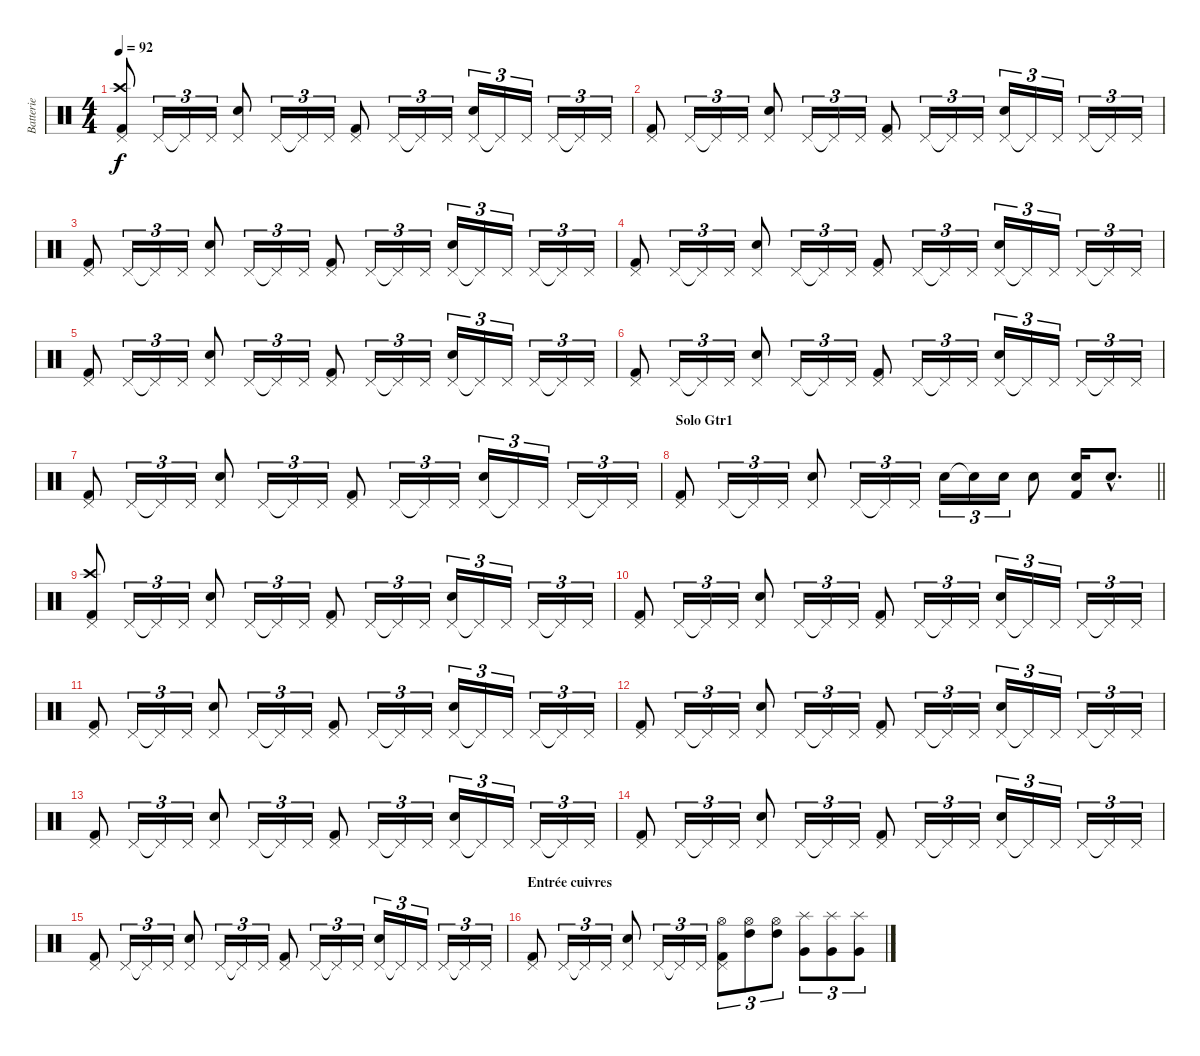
\track ("Batterie" "Batterie") {instrument percussion}
\staff {score}
\articulation defaults
\ts (4 4)
\tempo 92
\clef neutral
\ks c
("Pedal Hi-Hat (hit)" "Crash high (hit)" "Kick (hit) 2").8{dy f} "Pedal Hi-Hat (hit)".16{tu (3 2)} "Pedal Hi-Hat (hit)"{t}.16{tu (3 2)} "Pedal Hi-Hat (hit)".16{tu (3 2)} ("Pedal Hi-Hat (hit)" "Electric Snare (hit)").8 "Pedal Hi-Hat (hit)".16{tu (3 2)} "Pedal Hi-Hat (hit)"{t}.16{tu (3 2)} "Pedal Hi-Hat (hit)".16{tu (3 2)} ("Pedal Hi-Hat (hit)" "Kick (hit) 2").8 "Pedal Hi-Hat (hit)".16{tu (3 2)} "Pedal Hi-Hat (hit)"{t}.16{tu (3 2)} "Pedal Hi-Hat (hit)".16{tu (3 2)} ("Pedal Hi-Hat (hit)" "Electric Snare (hit)").16{tu (3 2)} "Pedal Hi-Hat (hit)"{t}.16{tu (3 2)} "Pedal Hi-Hat (hit)".16{tu (3 2)} "Pedal Hi-Hat (hit)".16{tu (3 2)} "Pedal Hi-Hat (hit)"{t}.16{tu (3 2)} "Pedal Hi-Hat (hit)".16{tu (3 2)} |
("Pedal Hi-Hat (hit)" "Kick (hit) 2").8 "Pedal Hi-Hat (hit)".16{tu (3 2)} "Pedal Hi-Hat (hit)"{t}.16{tu (3 2)} "Pedal Hi-Hat (hit)".16{tu (3 2)} ("Pedal Hi-Hat (hit)" "Electric Snare (hit)").8 "Pedal Hi-Hat (hit)".16{tu (3 2)} "Pedal Hi-Hat (hit)"{t}.16{tu (3 2)} "Pedal Hi-Hat (hit)".16{tu (3 2)} ("Pedal Hi-Hat (hit)" "Kick (hit) 2").8 "Pedal Hi-Hat (hit)".16{tu (3 2)} "Pedal Hi-Hat (hit)"{t}.16{tu (3 2)} "Pedal Hi-Hat (hit)".16{tu (3 2)} ("Pedal Hi-Hat (hit)" "Electric Snare (hit)").16{tu (3 2)} "Pedal Hi-Hat (hit)"{t}.16{tu (3 2)} "Pedal Hi-Hat (hit)".16{tu (3 2)} "Pedal Hi-Hat (hit)".16{tu (3 2)} "Pedal Hi-Hat (hit)"{t}.16{tu (3 2)} "Pedal Hi-Hat (hit)".16{tu (3 2)} |
("Pedal Hi-Hat (hit)" "Kick (hit) 2").8 "Pedal Hi-Hat (hit)".16{tu (3 2)} "Pedal Hi-Hat (hit)"{t}.16{tu (3 2)} "Pedal Hi-Hat (hit)".16{tu (3 2)} ("Pedal Hi-Hat (hit)" "Electric Snare (hit)").8 "Pedal Hi-Hat (hit)".16{tu (3 2)} "Pedal Hi-Hat (hit)"{t}.16{tu (3 2)} "Pedal Hi-Hat (hit)".16{tu (3 2)} ("Pedal Hi-Hat (hit)" "Kick (hit) 2").8 "Pedal Hi-Hat (hit)".16{tu (3 2)} "Pedal Hi-Hat (hit)"{t}.16{tu (3 2)} "Pedal Hi-Hat (hit)".16{tu (3 2)} ("Pedal Hi-Hat (hit)" "Electric Snare (hit)").16{tu (3 2)} "Pedal Hi-Hat (hit)"{t}.16{tu (3 2)} "Pedal Hi-Hat (hit)".16{tu (3 2)} "Pedal Hi-Hat (hit)".16{tu (3 2)} "Pedal Hi-Hat (hit)"{t}.16{tu (3 2)} "Pedal Hi-Hat (hit)".16{tu (3 2)} |
("Pedal Hi-Hat (hit)" "Kick (hit) 2").8 "Pedal Hi-Hat (hit)".16{tu (3 2)} "Pedal Hi-Hat (hit)"{t}.16{tu (3 2)} "Pedal Hi-Hat (hit)".16{tu (3 2)} ("Pedal Hi-Hat (hit)" "Electric Snare (hit)").8 "Pedal Hi-Hat (hit)".16{tu (3 2)} "Pedal Hi-Hat (hit)"{t}.16{tu (3 2)} "Pedal Hi-Hat (hit)".16{tu (3 2)} ("Pedal Hi-Hat (hit)" "Kick (hit) 2").8 "Pedal Hi-Hat (hit)".16{tu (3 2)} "Pedal Hi-Hat (hit)"{t}.16{tu (3 2)} "Pedal Hi-Hat (hit)".16{tu (3 2)} ("Pedal Hi-Hat (hit)" "Electric Snare (hit)").16{tu (3 2)} "Pedal Hi-Hat (hit)"{t}.16{tu (3 2)} "Pedal Hi-Hat (hit)".16{tu (3 2)} "Pedal Hi-Hat (hit)".16{tu (3 2)} "Pedal Hi-Hat (hit)"{t}.16{tu (3 2)} "Pedal Hi-Hat (hit)".16{tu (3 2)} |
("Pedal Hi-Hat (hit)" "Kick (hit) 2").8 "Pedal Hi-Hat (hit)".16{tu (3 2)} "Pedal Hi-Hat (hit)"{t}.16{tu (3 2)} "Pedal Hi-Hat (hit)".16{tu (3 2)} ("Pedal Hi-Hat (hit)" "Electric Snare (hit)").8 "Pedal Hi-Hat (hit)".16{tu (3 2)} "Pedal Hi-Hat (hit)"{t}.16{tu (3 2)} "Pedal Hi-Hat (hit)".16{tu (3 2)} ("Pedal Hi-Hat (hit)" "Kick (hit) 2").8 "Pedal Hi-Hat (hit)".16{tu (3 2)} "Pedal Hi-Hat (hit)"{t}.16{tu (3 2)} "Pedal Hi-Hat (hit)".16{tu (3 2)} ("Pedal Hi-Hat (hit)" "Electric Snare (hit)").16{tu (3 2)} "Pedal Hi-Hat (hit)"{t}.16{tu (3 2)} "Pedal Hi-Hat (hit)".16{tu (3 2)} "Pedal Hi-Hat (hit)".16{tu (3 2)} "Pedal Hi-Hat (hit)"{t}.16{tu (3 2)} "Pedal Hi-Hat (hit)".16{tu (3 2)} |
("Pedal Hi-Hat (hit)" "Kick (hit) 2").8 "Pedal Hi-Hat (hit)".16{tu (3 2)} "Pedal Hi-Hat (hit)"{t}.16{tu (3 2)} "Pedal Hi-Hat (hit)".16{tu (3 2)} ("Pedal Hi-Hat (hit)" "Electric Snare (hit)").8 "Pedal Hi-Hat (hit)".16{tu (3 2)} "Pedal Hi-Hat (hit)"{t}.16{tu (3 2)} "Pedal Hi-Hat (hit)".16{tu (3 2)} ("Pedal Hi-Hat (hit)" "Kick (hit) 2").8 "Pedal Hi-Hat (hit)".16{tu (3 2)} "Pedal Hi-Hat (hit)"{t}.16{tu (3 2)} "Pedal Hi-Hat (hit)".16{tu (3 2)} ("Pedal Hi-Hat (hit)" "Electric Snare (hit)").16{tu (3 2)} "Pedal Hi-Hat (hit)"{t}.16{tu (3 2)} "Pedal Hi-Hat (hit)".16{tu (3 2)} "Pedal Hi-Hat (hit)".16{tu (3 2)} "Pedal Hi-Hat (hit)"{t}.16{tu (3 2)} "Pedal Hi-Hat (hit)".16{tu (3 2)} |
("Pedal Hi-Hat (hit)" "Kick (hit) 2").8 "Pedal Hi-Hat (hit)".16{tu (3 2)} "Pedal Hi-Hat (hit)"{t}.16{tu (3 2)} "Pedal Hi-Hat (hit)".16{tu (3 2)} ("Pedal Hi-Hat (hit)" "Electric Snare (hit)").8 "Pedal Hi-Hat (hit)".16{tu (3 2)} "Pedal Hi-Hat (hit)"{t}.16{tu (3 2)} "Pedal Hi-Hat (hit)".16{tu (3 2)} ("Pedal Hi-Hat (hit)" "Kick (hit) 2").8 "Pedal Hi-Hat (hit)".16{tu (3 2)} "Pedal Hi-Hat (hit)"{t}.16{tu (3 2)} "Pedal Hi-Hat (hit)".16{tu (3 2)} ("Pedal Hi-Hat (hit)" "Electric Snare (hit)").16{tu (3 2)} "Pedal Hi-Hat (hit)"{t}.16{tu (3 2)} "Pedal Hi-Hat (hit)".16{tu (3 2)} "Pedal Hi-Hat (hit)".16{tu (3 2)} "Pedal Hi-Hat (hit)"{t}.16{tu (3 2)} "Pedal Hi-Hat (hit)".16{tu (3 2)} |
\section ("" "Solo Gtr1")
\barLineRight lightlight
("Pedal Hi-Hat (hit)" "Kick (hit) 2").8 "Pedal Hi-Hat (hit)".16{tu (3 2)} "Pedal Hi-Hat (hit)"{t}.16{tu (3 2)} "Pedal Hi-Hat (hit)".16{tu (3 2)} ("Pedal Hi-Hat (hit)" "Electric Snare (hit)").8 "Pedal Hi-Hat (hit)".16{tu (3 2)} "Pedal Hi-Hat (hit)"{t}.16{tu (3 2)} "Pedal Hi-Hat (hit)".16{tu (3 2)} "Electric Snare (hit)".16{tu (3 2)} "Electric Snare (hit)"{t}.16{tu (3 2)} "Electric Snare (hit)".16{tu (3 2)} "Electric Snare (hit)".8 ("Electric Snare (hit)" "Kick (hit) 2").16 "Electric Snare (hit)"{hac}.8{d} |
("Pedal Hi-Hat (hit)" "Crash high (hit)" "Kick (hit) 2").8 "Pedal Hi-Hat (hit)".16{tu (3 2)} "Pedal Hi-Hat (hit)"{t}.16{tu (3 2)} "Pedal Hi-Hat (hit)".16{tu (3 2)} ("Pedal Hi-Hat (hit)" "Electric Snare (hit)").8 "Pedal Hi-Hat (hit)".16{tu (3 2)} "Pedal Hi-Hat (hit)"{t}.16{tu (3 2)} "Pedal Hi-Hat (hit)".16{tu (3 2)} ("Pedal Hi-Hat (hit)" "Kick (hit) 2").8 "Pedal Hi-Hat (hit)".16{tu (3 2)} "Pedal Hi-Hat (hit)"{t}.16{tu (3 2)} "Pedal Hi-Hat (hit)".16{tu (3 2)} ("Pedal Hi-Hat (hit)" "Electric Snare (hit)").16{tu (3 2)} "Pedal Hi-Hat (hit)"{t}.16{tu (3 2)} "Pedal Hi-Hat (hit)".16{tu (3 2)} "Pedal Hi-Hat (hit)".16{tu (3 2)} "Pedal Hi-Hat (hit)"{t}.16{tu (3 2)} "Pedal Hi-Hat (hit)".16{tu (3 2)} |
("Pedal Hi-Hat (hit)" "Kick (hit) 2").8 "Pedal Hi-Hat (hit)".16{tu (3 2)} "Pedal Hi-Hat (hit)"{t}.16{tu (3 2)} "Pedal Hi-Hat (hit)".16{tu (3 2)} ("Pedal Hi-Hat (hit)" "Electric Snare (hit)").8 "Pedal Hi-Hat (hit)".16{tu (3 2)} "Pedal Hi-Hat (hit)"{t}.16{tu (3 2)} "Pedal Hi-Hat (hit)".16{tu (3 2)} ("Pedal Hi-Hat (hit)" "Kick (hit) 2").8 "Pedal Hi-Hat (hit)".16{tu (3 2)} "Pedal Hi-Hat (hit)"{t}.16{tu (3 2)} "Pedal Hi-Hat (hit)".16{tu (3 2)} ("Pedal Hi-Hat (hit)" "Electric Snare (hit)").16{tu (3 2)} "Pedal Hi-Hat (hit)"{t}.16{tu (3 2)} "Pedal Hi-Hat (hit)".16{tu (3 2)} "Pedal Hi-Hat (hit)".16{tu (3 2)} "Pedal Hi-Hat (hit)"{t}.16{tu (3 2)} "Pedal Hi-Hat (hit)".16{tu (3 2)} |
("Pedal Hi-Hat (hit)" "Kick (hit) 2").8 "Pedal Hi-Hat (hit)".16{tu (3 2)} "Pedal Hi-Hat (hit)"{t}.16{tu (3 2)} "Pedal Hi-Hat (hit)".16{tu (3 2)} ("Pedal Hi-Hat (hit)" "Electric Snare (hit)").8 "Pedal Hi-Hat (hit)".16{tu (3 2)} "Pedal Hi-Hat (hit)"{t}.16{tu (3 2)} "Pedal Hi-Hat (hit)".16{tu (3 2)} ("Pedal Hi-Hat (hit)" "Kick (hit) 2").8 "Pedal Hi-Hat (hit)".16{tu (3 2)} "Pedal Hi-Hat (hit)"{t}.16{tu (3 2)} "Pedal Hi-Hat (hit)".16{tu (3 2)} ("Pedal Hi-Hat (hit)" "Electric Snare (hit)").16{tu (3 2)} "Pedal Hi-Hat (hit)"{t}.16{tu (3 2)} "Pedal Hi-Hat (hit)".16{tu (3 2)} "Pedal Hi-Hat (hit)".16{tu (3 2)} "Pedal Hi-Hat (hit)"{t}.16{tu (3 2)} "Pedal Hi-Hat (hit)".16{tu (3 2)} |
("Pedal Hi-Hat (hit)" "Kick (hit) 2").8 "Pedal Hi-Hat (hit)".16{tu (3 2)} "Pedal Hi-Hat (hit)"{t}.16{tu (3 2)} "Pedal Hi-Hat (hit)".16{tu (3 2)} ("Pedal Hi-Hat (hit)" "Electric Snare (hit)").8 "Pedal Hi-Hat (hit)".16{tu (3 2)} "Pedal Hi-Hat (hit)"{t}.16{tu (3 2)} "Pedal Hi-Hat (hit)".16{tu (3 2)} ("Pedal Hi-Hat (hit)" "Kick (hit) 2").8 "Pedal Hi-Hat (hit)".16{tu (3 2)} "Pedal Hi-Hat (hit)"{t}.16{tu (3 2)} "Pedal Hi-Hat (hit)".16{tu (3 2)} ("Pedal Hi-Hat (hit)" "Electric Snare (hit)").16{tu (3 2)} "Pedal Hi-Hat (hit)"{t}.16{tu (3 2)} "Pedal Hi-Hat (hit)".16{tu (3 2)} "Pedal Hi-Hat (hit)".16{tu (3 2)} "Pedal Hi-Hat (hit)"{t}.16{tu (3 2)} "Pedal Hi-Hat (hit)".16{tu (3 2)} |
("Pedal Hi-Hat (hit)" "Kick (hit) 2").8 "Pedal Hi-Hat (hit)".16{tu (3 2)} "Pedal Hi-Hat (hit)"{t}.16{tu (3 2)} "Pedal Hi-Hat (hit)".16{tu (3 2)} ("Pedal Hi-Hat (hit)" "Electric Snare (hit)").8 "Pedal Hi-Hat (hit)".16{tu (3 2)} "Pedal Hi-Hat (hit)"{t}.16{tu (3 2)} "Pedal Hi-Hat (hit)".16{tu (3 2)} ("Pedal Hi-Hat (hit)" "Kick (hit) 2").8 "Pedal Hi-Hat (hit)".16{tu (3 2)} "Pedal Hi-Hat (hit)"{t}.16{tu (3 2)} "Pedal Hi-Hat (hit)".16{tu (3 2)} ("Pedal Hi-Hat (hit)" "Electric Snare (hit)").16{tu (3 2)} "Pedal Hi-Hat (hit)"{t}.16{tu (3 2)} "Pedal Hi-Hat (hit)".16{tu (3 2)} "Pedal Hi-Hat (hit)".16{tu (3 2)} "Pedal Hi-Hat (hit)"{t}.16{tu (3 2)} "Pedal Hi-Hat (hit)".16{tu (3 2)} |
("Pedal Hi-Hat (hit)" "Kick (hit) 2").8 "Pedal Hi-Hat (hit)".16{tu (3 2)} "Pedal Hi-Hat (hit)"{t}.16{tu (3 2)} "Pedal Hi-Hat (hit)".16{tu (3 2)} ("Pedal Hi-Hat (hit)" "Electric Snare (hit)").8 "Pedal Hi-Hat (hit)".16{tu (3 2)} "Pedal Hi-Hat (hit)"{t}.16{tu (3 2)} "Pedal Hi-Hat (hit)".16{tu (3 2)} ("Pedal Hi-Hat (hit)" "Kick (hit) 2").8 "Pedal Hi-Hat (hit)".16{tu (3 2)} "Pedal Hi-Hat (hit)"{t}.16{tu (3 2)} "Pedal Hi-Hat (hit)".16{tu (3 2)} ("Pedal Hi-Hat (hit)" "Electric Snare (hit)").16{tu (3 2)} "Pedal Hi-Hat (hit)"{t}.16{tu (3 2)} "Pedal Hi-Hat (hit)".16{tu (3 2)} "Pedal Hi-Hat (hit)".16{tu (3 2)} "Pedal Hi-Hat (hit)"{t}.16{tu (3 2)} "Pedal Hi-Hat (hit)".16{tu (3 2)} |
("Pedal Hi-Hat (hit)" "Kick (hit) 2").8 "Pedal Hi-Hat (hit)".16{tu (3 2)} "Pedal Hi-Hat (hit)"{t}.16{tu (3 2)} "Pedal Hi-Hat (hit)".16{tu (3 2)} ("Pedal Hi-Hat (hit)" "Electric Snare (hit)").8 "Pedal Hi-Hat (hit)".16{tu (3 2)} "Pedal Hi-Hat (hit)"{t}.16{tu (3 2)} "Pedal Hi-Hat (hit)".16{tu (3 2)} ("Pedal Hi-Hat (hit)" "Kick (hit) 2").8 "Pedal Hi-Hat (hit)".16{tu (3 2)} "Pedal Hi-Hat (hit)"{t}.16{tu (3 2)} "Pedal Hi-Hat (hit)".16{tu (3 2)} ("Pedal Hi-Hat (hit)" "Electric Snare (hit)").16{tu (3 2)} "Pedal Hi-Hat (hit)"{t}.16{tu (3 2)} "Pedal Hi-Hat (hit)".16{tu (3 2)} "Pedal Hi-Hat (hit)".16{tu (3 2)} "Pedal Hi-Hat (hit)"{t}.16{tu (3 2)} "Pedal Hi-Hat (hit)".16{tu (3 2)} |
\section ("" "Entrée cuivres")
("Pedal Hi-Hat (hit)" "Kick (hit) 2").8 "Pedal Hi-Hat (hit)".16{tu (3 2)} "Pedal Hi-Hat (hit)"{t}.16{tu (3 2)} "Pedal Hi-Hat (hit)".16{tu (3 2)} ("Pedal Hi-Hat (hit)" "Electric Snare (hit)").8 "Pedal Hi-Hat (hit)".16{tu (3 2)} "Pedal Hi-Hat (hit)"{t}.16{tu (3 2)} "Pedal Hi-Hat (hit)".16{tu (3 2)} ("Pedal Hi-Hat (hit)" "Hi-Hat (open)" "Kick (hit) 2").8{tu (3 2)} ("Hi-Hat (open)" "High Tom (hit)").8{tu (3 2)} ("Hi-Hat (open)" "High Tom (hit)").8{tu (3 2)} ("Splash (hit)" "Very Low Tom (hit)").8{tu (3 2)} ("Splash (hit)" "Very Low Tom (hit)").8{tu (3 2)} ("Splash (hit)" "Very Low Tom (hit)").8{tu (3 2)}
